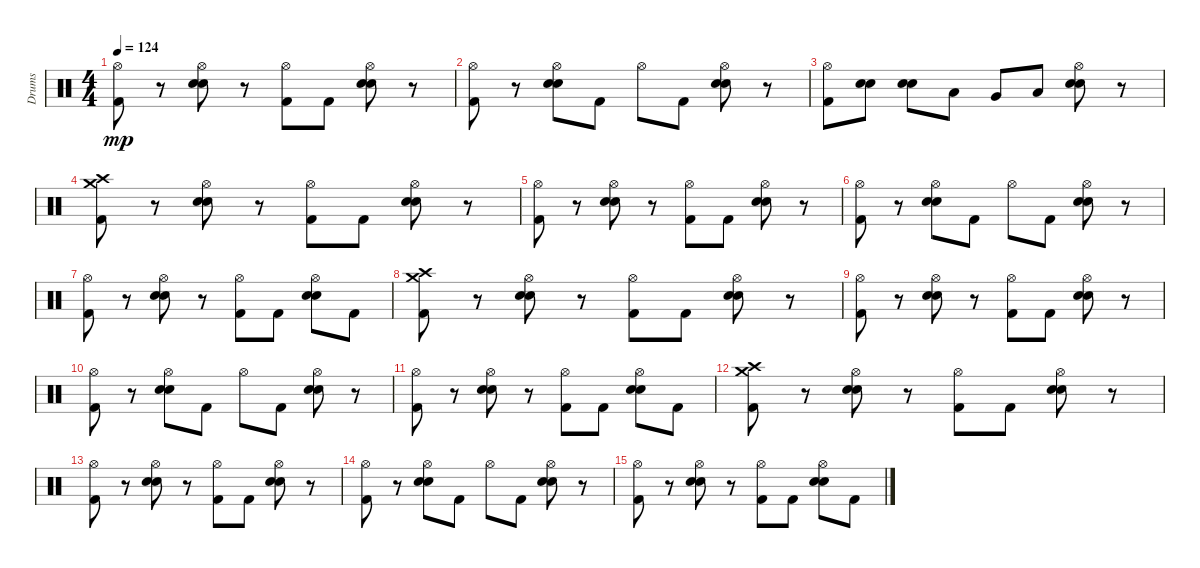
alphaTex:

\track ("Drums" "Drums") {instrument percussion}
\staff {score}
\articulation defaults
\ts (4 4)
\tempo 124
\clef neutral
\ks c
("Hi-Hat (open)" "Kick (hit) 2").8{dy mp} r.8 ("Hi-Hat (open)" "Snare (hit) 2" "Electric Snare (hit)").8 r.8 ("Hi-Hat (open)" "Kick (hit) 2").8 "Kick (hit) 2".8 ("Electric Snare (hit)" "Hi-Hat (open)" "Snare (hit) 2").8 r.8 |
("Hi-Hat (open)" "Kick (hit) 2").8 r.8 ("Electric Snare (hit)" "Hi-Hat (open)" "Snare (hit) 2").8 "Kick (hit) 2".8 "Hi-Hat (open)".8 "Kick (hit) 2".8 ("Electric Snare (hit)" "Snare (hit) 2" "Hi-Hat (open)").8 r.8 |
("Hi-Hat (open)" "Kick (hit) 2").8 ("Electric Snare (hit)" "Snare (hit) 2").8 ("Snare (hit) 2" "Electric Snare (hit)").8 "Low Tom (hit)".8 "Very Low Tom (hit)".8 "Low Floor Tom (hit)".8 ("Snare (hit) 2" "Electric Snare (hit)" "Hi-Hat (open)").8 r.8 |
("Crash high (hit)" "Crash medium (hit)" "Kick (hit) 2").8 r.8 ("Hi-Hat (open)" "Snare (hit) 2" "Electric Snare (hit)").8 r.8 ("Hi-Hat (open)" "Kick (hit) 2").8 "Kick (hit) 2".8 ("Electric Snare (hit)" "Snare (hit) 2" "Hi-Hat (open)").8 r.8 |
("Hi-Hat (open)" "Kick (hit) 2").8 r.8 ("Electric Snare (hit)" "Hi-Hat (open)" "Snare (hit) 2").8 r.8 ("Kick (hit) 2" "Hi-Hat (open)").8 "Kick (hit) 2".8 ("Hi-Hat (open)" "Electric Snare (hit)" "Snare (hit) 2").8 r.8 |
("Hi-Hat (open)" "Kick (hit) 2").8 r.8 ("Snare (hit) 2" "Hi-Hat (open)" "Electric Snare (hit)").8 "Kick (hit) 2".8 "Hi-Hat (open)".8 "Kick (hit) 2".8 ("Snare (hit) 2" "Hi-Hat (open)" "Electric Snare (hit)").8 r.8 |
("Hi-Hat (open)" "Kick (hit) 2").8 r.8 ("Hi-Hat (open)" "Snare (hit) 2" "Electric Snare (hit)").8 r.8 ("Kick (hit) 2" "Hi-Hat (open)").8 "Kick (hit) 2".8 ("Snare (hit) 2" "Electric Snare (hit)" "Hi-Hat (open)").8 "Kick (hit) 2".8 |
("Crash medium (hit)" "Kick (hit) 2" "Crash high (hit)").8 r.8 ("Snare (hit) 2" "Hi-Hat (open)" "Electric Snare (hit)").8{volume 13} r.8 ("Hi-Hat (open)" "Kick (hit) 2").8{volume 13} "Kick (hit) 2".8{volume 12} ("Hi-Hat (open)" "Electric Snare (hit)" "Snare (hit) 2").8{volume 12} r.8 |
("Hi-Hat (open)" "Kick (hit) 2").8{volume 12} r.8 ("Electric Snare (hit)" "Snare (hit) 2" "Hi-Hat (open)").8{volume 12} r.8 ("Hi-Hat (open)" "Kick (hit) 2").8{volume 11} "Kick (hit) 2".8{volume 11} ("Snare (hit) 2" "Hi-Hat (open)" "Electric Snare (hit)").8{volume 11} r.8 |
("Kick (hit) 2" "Hi-Hat (open)").8{volume 10} r.8 ("Electric Snare (hit)" "Hi-Hat (open)" "Snare (hit) 2").8{volume 10} "Kick (hit) 2".8 "Hi-Hat (open)".8{volume 10} "Kick (hit) 2".8{volume 10} ("Snare (hit) 2" "Electric Snare (hit)" "Hi-Hat (open)").8{volume 10} r.8 |
("Kick (hit) 2" "Hi-Hat (open)").8{volume 9} r.8 ("Snare (hit) 2" "Hi-Hat (open)" "Electric Snare (hit)").8{volume 9} r.8 ("Hi-Hat (open)" "Kick (hit) 2").8 "Kick (hit) 2".8{volume 9} ("Hi-Hat (open)" "Electric Snare (hit)" "Snare (hit) 2").8{volume 8} "Kick (hit) 2".8 |
("Kick (hit) 2" "Crash high (hit)" "Crash medium (hit)").8 r.8 ("Hi-Hat (open)" "Snare (hit) 2" "Electric Snare (hit)").8{volume 8} r.8 ("Hi-Hat (open)" "Kick (hit) 2").8{volume 7} "Kick (hit) 2".8{volume 7} ("Snare (hit) 2" "Electric Snare (hit)" "Hi-Hat (open)").8{volume 7} r.8 |
("Hi-Hat (open)" "Kick (hit) 2").8{volume 6} r.8 ("Electric Snare (hit)" "Snare (hit) 2" "Hi-Hat (open)").8{volume 6} r.8 ("Hi-Hat (open)" "Kick (hit) 2").8{volume 5} "Kick (hit) 2".8 ("Hi-Hat (open)" "Snare (hit) 2" "Electric Snare (hit)").8{volume 5} r.8 |
("Hi-Hat (open)" "Kick (hit) 2").8{volume 5} r.8 ("Electric Snare (hit)" "Snare (hit) 2" "Hi-Hat (open)").8{volume 4} "Kick (hit) 2".8{volume 4} "Hi-Hat (open)".8{volume 4} "Kick (hit) 2".8 ("Snare (hit) 2" "Hi-Hat (open)" "Electric Snare (hit)").8{volume 4} r.8 |
("Hi-Hat (open)" "Kick (hit) 2").8{volume 3} r.8 ("Electric Snare (hit)" "Hi-Hat (open)" "Snare (hit) 2").8{volume 2} r.8 ("Hi-Hat (open)" "Kick (hit) 2").8{volume 1} "Kick (hit) 2".8{volume 1} ("Electric Snare (hit)" "Hi-Hat (open)" "Snare (hit) 2").8 "Kick (hit) 2".8
